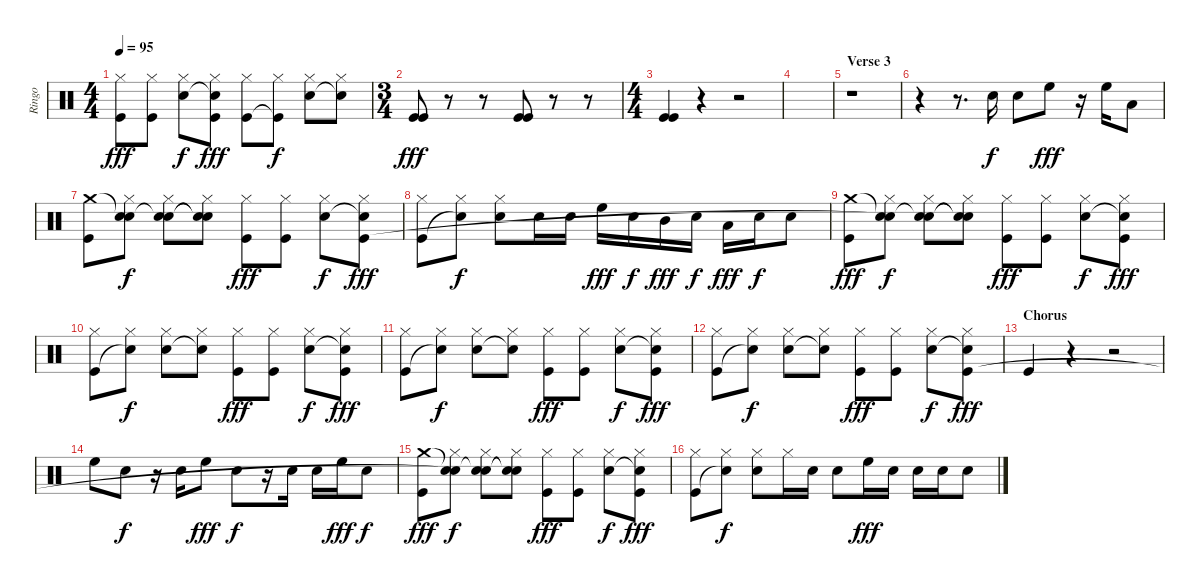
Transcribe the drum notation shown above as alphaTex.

\track ("Ringo" "Ringo") {instrument percussion}
\staff {score}
\articulation defaults
\ts (4 4)
\tempo 95
\clef neutral
\ks c
("Hi-Hat (closed)" "Kick (hit)").8{dy fff} ("Hi-Hat (closed)" "Kick (hit)").8 ("Hi-Hat (closed)" "Electric Snare (hit)").8{dy f} ("Hi-Hat (closed)" "Snare (hit)"{t} "Kick (hit)").8{dy fff} ("Hi-Hat (closed)" "Kick (hit)").8 ("Hi-Hat (closed)" "Kick (hit)"{t}).8{dy f} ("Hi-Hat (closed)" "Electric Snare (hit)").8 ("Hi-Hat (closed)" "Snare (hit)"{t}).8 |
\ts (3 4)
("Kick (hit)" "Kick (hit)").8{dy fff} r.8 r.8 ("Kick (hit)" "Kick (hit)").8 r.8 r.8 |
\ts (4 4)
("Kick (hit)" "Kick (hit)").4 r.4 r.2 |
|
\section ("" "Verse 3")
r.1 |
r.4 r.8{d} "Electric Snare (hit)".16{dy f} "Electric Snare (hit)".8 "High Floor Tom (hit)".8{dy fff} r.16 "High Floor Tom (hit)".16 "Low Floor Tom (hit)".8 |
("Crash medium (hit)" "Kick (hit)").8 ("Snare (hit)"{t} "Hi-Hat (closed)" "Snare (hit)").8{dy f} ("Snare (hit)"{t} "Hi-Hat (closed)" "Electric Snare (hit)").8 ("Snare (hit)"{t} "Hi-Hat (closed)" "Snare (hit)"{t}).8 ("Hi-Hat (closed)" "Kick (hit)").8{dy fff} ("Hi-Hat (closed)" "Kick (hit)").8 ("Hi-Hat (closed)" "Electric Snare (hit)").8{dy f} ("Hi-Hat (closed)" "Snare (hit)"{t} "Kick (hit)").8{dy fff} |
("Hi-Hat (closed)" "Kick (hit)").8 ("Hi-Hat (closed)" "Snare (hit)"{t}).8{dy f} ("Hi-Hat (closed)" "Electric Snare (hit)").8 "Electric Snare (hit)".16 "Electric Snare (hit)".16 "High Floor Tom (hit)".16{dy fff} "Electric Snare (hit)".16{dy f} "Mid Tom (hit)".16{dy fff} "Electric Snare (hit)".16{dy f} "Low Floor Tom (hit)".16{dy fff} "Electric Snare (hit)".16{dy f} "Electric Snare (hit)".8 |
("Crash medium (hit)" "Kick (hit)").8{dy fff} ("Snare (hit)"{t} "Hi-Hat (closed)" "Snare (hit)"{t}).8{dy f} ("Snare (hit)"{t} "Hi-Hat (closed)" "Electric Snare (hit)").8 ("Snare (hit)"{t} "Hi-Hat (closed)" "Snare (hit)"{t}).8 ("Hi-Hat (closed)" "Kick (hit)").8{dy fff} ("Hi-Hat (closed)" "Kick (hit)").8 ("Hi-Hat (closed)" "Electric Snare (hit)").8{dy f} ("Hi-Hat (closed)" "Snare (hit)"{t} "Kick (hit)").8{dy fff} |
("Hi-Hat (closed)" "Kick (hit)").8 ("Hi-Hat (closed)" "Snare (hit)"{t}).8{dy f} ("Hi-Hat (closed)" "Electric Snare (hit)").8 ("Hi-Hat (closed)" "Snare (hit)"{t}).8 ("Hi-Hat (closed)" "Kick (hit)").8{dy fff} ("Hi-Hat (closed)" "Kick (hit)").8 ("Hi-Hat (closed)" "Electric Snare (hit)").8{dy f} ("Hi-Hat (closed)" "Snare (hit)"{t} "Kick (hit)").8{dy fff} |
("Hi-Hat (closed)" "Kick (hit)").8 ("Hi-Hat (closed)" "Snare (hit)"{t}).8{dy f} ("Hi-Hat (closed)" "Electric Snare (hit)").8 ("Hi-Hat (closed)" "Snare (hit)"{t}).8 ("Hi-Hat (closed)" "Kick (hit)").8{dy fff} ("Hi-Hat (closed)" "Kick (hit)").8 ("Hi-Hat (closed)" "Electric Snare (hit)").8{dy f} ("Hi-Hat (closed)" "Snare (hit)"{t} "Kick (hit)").8{dy fff} |
("Hi-Hat (closed)" "Kick (hit)").8 ("Hi-Hat (closed)" "Snare (hit)"{t}).8{dy f} ("Hi-Hat (closed)" "Electric Snare (hit)").8 ("Hi-Hat (closed)" "Snare (hit)"{t}).8 ("Hi-Hat (closed)" "Kick (hit)").8{dy fff} ("Hi-Hat (closed)" "Kick (hit)").8 ("Hi-Hat (closed)" "Electric Snare (hit)").8{dy f} ("Hi-Hat (closed)" "Snare (hit)"{t} "Kick (hit)").8{dy fff} |
\section ("" "Chorus")
"Kick (hit)".4 r.4 r.2 |
"High Floor Tom (hit)".8 "Snare (hit) 2".8{dy f} r.16 "Snare (hit) 2".16 "High Floor Tom (hit)".8{dy fff} "Snare (hit) 2".8{dy f} r.16 "Snare (hit) 2".16 "Snare (hit) 2".16 "High Floor Tom (hit)".16{dy fff} "Snare (hit) 2".8{dy f} |
("Crash medium (hit)" "Kick (hit)").8{dy fff} ("Snare (hit)"{t} "Hi-Hat (closed)" "Snare (hit)"{t}).8{dy f} ("Snare (hit)"{t} "Hi-Hat (closed)" "Electric Snare (hit)").8 ("Snare (hit)"{t} "Hi-Hat (closed)" "Snare (hit)"{t}).8 ("Hi-Hat (closed)" "Kick (hit)").8{dy fff} ("Hi-Hat (closed)" "Kick (hit)").8 ("Hi-Hat (closed)" "Electric Snare (hit)").8{dy f} ("Hi-Hat (closed)" "Snare (hit)"{t} "Kick (hit)").8{dy fff} |
("Hi-Hat (closed)" "Kick (hit)").8 ("Hi-Hat (closed)" "Snare (hit)"{t}).8{dy f} ("Hi-Hat (closed)" "Electric Snare (hit)").8 "Hi-Hat (closed)".16 "Electric Snare (hit)".16 "Electric Snare (hit)".8 "High Floor Tom (hit)".16{dy fff} "Electric Snare (hit)".16 "Electric Snare (hit)".16 "Electric Snare (hit)".16 "Electric Snare (hit)".8
